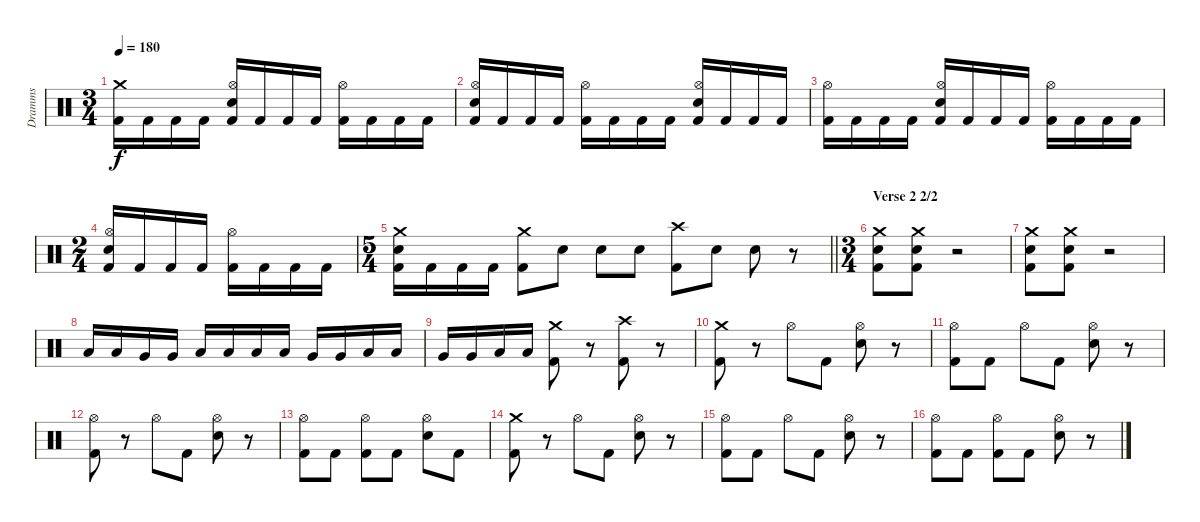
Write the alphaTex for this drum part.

\track ("Dramms" "Dramms") {instrument percussion}
\staff {score}
\articulation defaults
\ts (3 4)
\tempo 180
\clef neutral
\ks c
("Crash medium (hit)" "Kick (hit) 2").16{dy f} "Kick (hit) 2".16 "Kick (hit) 2".16 "Kick (hit) 2".16 ("Hi-Hat (open)" "Electric Snare (hit)" "Kick (hit) 2").16 "Kick (hit) 2".16 "Kick (hit) 2".16 "Kick (hit) 2".16 ("Hi-Hat (open)" "Kick (hit) 2").16 "Kick (hit) 2".16 "Kick (hit) 2".16 "Kick (hit) 2".16 |
("Hi-Hat (open)" "Electric Snare (hit)" "Kick (hit) 2").16 "Kick (hit) 2".16 "Kick (hit) 2".16 "Kick (hit) 2".16 ("Hi-Hat (open)" "Kick (hit) 2").16 "Kick (hit) 2".16 "Kick (hit) 2".16 "Kick (hit) 2".16 ("Hi-Hat (open)" "Electric Snare (hit)" "Kick (hit) 2").16 "Kick (hit) 2".16 "Kick (hit) 2".16 "Kick (hit) 2".16 |
("Hi-Hat (open)" "Kick (hit) 2").16 "Kick (hit) 2".16 "Kick (hit) 2".16 "Kick (hit) 2".16 ("Hi-Hat (open)" "Electric Snare (hit)" "Kick (hit) 2").16 "Kick (hit) 2".16 "Kick (hit) 2".16 "Kick (hit) 2".16 ("Hi-Hat (open)" "Kick (hit) 2").16 "Kick (hit) 2".16 "Kick (hit) 2".16 "Kick (hit) 2".16 |
\ts (2 4)
("Hi-Hat (open)" "Electric Snare (hit)" "Kick (hit) 2").16 "Kick (hit) 2".16 "Kick (hit) 2".16 "Kick (hit) 2".16 ("Hi-Hat (open)" "Kick (hit) 2").16 "Kick (hit) 2".16 "Kick (hit) 2".16 "Kick (hit) 2".16 |
\ts (5 4)
\barLineRight lightlight
("Crash medium (hit)" "Electric Snare (hit)" "Kick (hit) 2").16 "Kick (hit) 2".16 "Kick (hit) 2".16 "Kick (hit) 2".16 ("Crash medium (hit)" "Kick (hit) 2").8 "Electric Snare (hit)".8 "Electric Snare (hit)".8 "Electric Snare (hit)".8 ("Crash high (hit)" "Kick (hit) 2").8 "Electric Snare (hit)".8 "Electric Snare (hit)".8 r.8 |
\ts (3 4)
\section ("" "Verse 2 2/2")
("Crash medium (hit)" "Electric Snare (hit)" "Kick (hit) 2").8 ("Crash medium (hit)" "Electric Snare (hit)" "Kick (hit) 2").8 r.2 |
("Crash medium (hit)" "Electric Snare (hit)" "Kick (hit) 2").8 ("Crash medium (hit)" "Electric Snare (hit)" "Kick (hit) 2").8 r.2 |
"Low Tom (hit)".16 "Low Tom (hit)".16 "Very Low Tom (hit)".16 "Very Low Tom (hit)".16 "Low Tom (hit)".16 "Low Tom (hit)".16 "Low Floor Tom (hit)".16 "Low Floor Tom (hit)".16 "Very Low Tom (hit)".16 "Very Low Tom (hit)".16 "Low Tom (hit)".16 "Low Tom (hit)".16 |
"Very Low Tom (hit)".16 "Very Low Tom (hit)".16 "Low Floor Tom (hit)".16 "Low Floor Tom (hit)".16 ("Crash medium (hit)" "Kick (hit) 2").8 r.8 ("Crash high (hit)" "Kick (hit) 2").8 r.8 |
("Crash medium (hit)" "Kick (hit) 2").8 r.8 "Hi-Hat (open)".8 "Kick (hit) 2".8 ("Hi-Hat (open)" "Electric Snare (hit)").8 r.8 |
("Hi-Hat (open)" "Kick (hit) 2").8 "Kick (hit) 2".8 "Hi-Hat (open)".8 "Kick (hit) 2".8 ("Hi-Hat (open)" "Electric Snare (hit)").8 r.8 |
("Hi-Hat (open)" "Kick (hit) 2").8 r.8 "Hi-Hat (open)".8 "Kick (hit) 2".8 ("Hi-Hat (open)" "Electric Snare (hit)").8 r.8 |
("Hi-Hat (open)" "Kick (hit) 2").8 "Kick (hit) 2".8 ("Hi-Hat (open)" "Kick (hit) 2").8 "Kick (hit) 2".8 ("Hi-Hat (open)" "Electric Snare (hit)").8 "Kick (hit) 2".8 |
("Crash medium (hit)" "Kick (hit) 2").8 r.8 "Hi-Hat (open)".8 "Kick (hit) 2".8 ("Hi-Hat (open)" "Electric Snare (hit)").8 r.8 |
("Hi-Hat (open)" "Kick (hit) 2").8 "Kick (hit) 2".8 "Hi-Hat (open)".8 "Kick (hit) 2".8 ("Hi-Hat (open)" "Electric Snare (hit)").8 r.8 |
("Hi-Hat (open)" "Kick (hit) 2").8 "Kick (hit) 2".8 ("Hi-Hat (open)" "Kick (hit) 2").8 "Kick (hit) 2".8 ("Hi-Hat (open)" "Electric Snare (hit)").8 r.8
